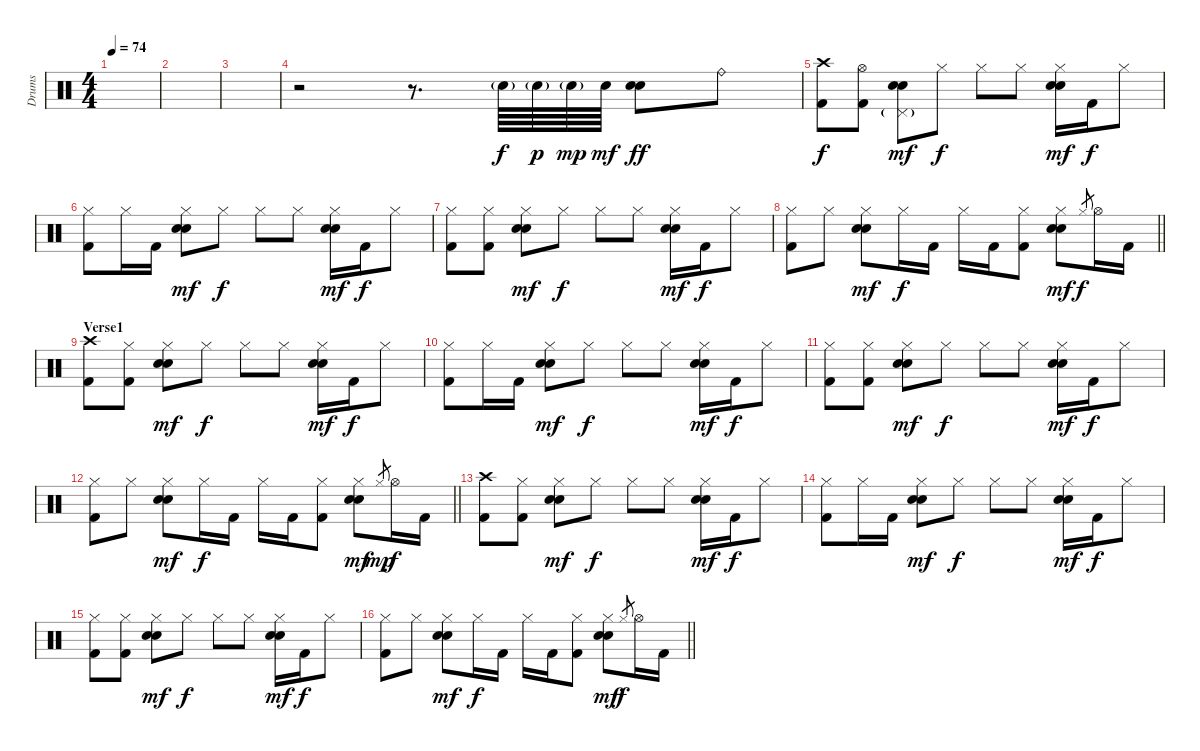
\track ("Drums" "Drums") {instrument percussion}
\staff {score}
\articulation defaults
\ts (4 4)
\tempo 74
\clef neutral
\ks c
|
|
|
r.2 r.8{d} "Snare (hit) 2"{g}.64 "Snare (hit) 2"{g}.64{dy p} "Snare (hit) 2"{g}.64{dy mp} "Snare (hit) 2".64{dy mf} ("Electric Snare (hit)" "Snare (hit) 2").8{dy ff} "Ride (bell)".8 |
("Crash high (hit)" "Kick (hit) 2").8{dy f} ("Hi-Hat (open)" "Kick (hit) 2").8 ("Pedal Hi-Hat (hit)"{g} "Electric Snare (hit)" "Snare (hit) 2").8{dy mf} "Hi-Hat (closed)".8{dy f} "Hi-Hat (closed)".8 "Hi-Hat (closed)".8 ("Hi-Hat (closed)" "Electric Snare (hit)" "Snare (hit) 2").16{dy mf} "Kick (hit) 2".16{dy f} "Hi-Hat (closed)".8 |
("Hi-Hat (closed)" "Kick (hit) 2").8 "Hi-Hat (closed)".16 "Kick (hit) 2".16 ("Hi-Hat (closed)" "Electric Snare (hit)" "Snare (hit) 2").8{dy mf} "Hi-Hat (closed)".8{dy f} "Hi-Hat (closed)".8 "Hi-Hat (closed)".8 ("Hi-Hat (closed)" "Electric Snare (hit)" "Snare (hit) 2").16{dy mf} "Kick (hit) 2".16{dy f} "Hi-Hat (closed)".8 |
("Hi-Hat (closed)" "Kick (hit) 2").8 ("Hi-Hat (closed)" "Kick (hit) 2").8 ("Hi-Hat (closed)" "Electric Snare (hit)" "Snare (hit) 2").8{dy mf} "Hi-Hat (closed)".8{dy f} "Hi-Hat (closed)".8 "Hi-Hat (closed)".8 ("Hi-Hat (closed)" "Electric Snare (hit)" "Snare (hit) 2").16{dy mf} "Kick (hit) 2".16{dy f} "Hi-Hat (closed)".8 |
\barLineRight lightlight
("Hi-Hat (closed)" "Kick (hit) 2").8 "Hi-Hat (closed)".8 ("Hi-Hat (closed)" "Electric Snare (hit)" "Snare (hit) 2").8{dy mf} "Hi-Hat (closed)".16{dy f} "Kick (hit) 2".16 "Hi-Hat (closed)".16 "Kick (hit) 2".16 ("Hi-Hat (closed)" "Kick (hit) 2").8 ("Hi-Hat (closed)" "Electric Snare (hit)" "Snare (hit) 2").8{dy mf} "Hi-Hat (closed)".8{gr dy f} "Hi-Hat (open)".16 "Kick (hit) 2".16 |
\section ("" "Verse1")
("Crash high (hit)" "Kick (hit) 2").8 ("Hi-Hat (closed)" "Kick (hit) 2").8 ("Hi-Hat (closed)" "Electric Snare (hit)" "Snare (hit) 2").8{dy mf} "Hi-Hat (closed)".8{dy f} "Hi-Hat (closed)".8 "Hi-Hat (closed)".8 ("Hi-Hat (closed)" "Electric Snare (hit)" "Snare (hit) 2").16{dy mf} "Kick (hit) 2".16{dy f} "Hi-Hat (closed)".8 |
("Hi-Hat (closed)" "Kick (hit) 2").8 "Hi-Hat (closed)".16 "Kick (hit) 2".16 ("Hi-Hat (closed)" "Electric Snare (hit)" "Snare (hit) 2").8{dy mf} "Hi-Hat (closed)".8{dy f} "Hi-Hat (closed)".8 "Hi-Hat (closed)".8 ("Hi-Hat (closed)" "Electric Snare (hit)" "Snare (hit) 2").16{dy mf} "Kick (hit) 2".16{dy f} "Hi-Hat (closed)".8 |
("Hi-Hat (closed)" "Kick (hit) 2").8 ("Hi-Hat (closed)" "Kick (hit) 2").8 ("Hi-Hat (closed)" "Electric Snare (hit)" "Snare (hit) 2").8{dy mf} "Hi-Hat (closed)".8{dy f} "Hi-Hat (closed)".8 "Hi-Hat (closed)".8 ("Hi-Hat (closed)" "Electric Snare (hit)" "Snare (hit) 2").16{dy mf} "Kick (hit) 2".16{dy f} "Hi-Hat (closed)".8 |
\barLineRight lightlight
("Hi-Hat (closed)" "Kick (hit) 2").8 "Hi-Hat (closed)".8 ("Hi-Hat (closed)" "Electric Snare (hit)" "Snare (hit) 2").8{dy mf} "Hi-Hat (closed)".16{dy f} "Kick (hit) 2".16 "Hi-Hat (closed)".16 "Kick (hit) 2".16 ("Hi-Hat (closed)" "Kick (hit) 2").8 ("Hi-Hat (closed)" "Electric Snare (hit)" "Snare (hit) 2").8{dy mf} "Hi-Hat (closed)".8{gr dy mp} "Hi-Hat (open)".16{dy f} "Kick (hit) 2".16 |
("Crash high (hit)" "Kick (hit) 2").8 ("Hi-Hat (closed)" "Kick (hit) 2").8 ("Hi-Hat (closed)" "Electric Snare (hit)" "Snare (hit) 2").8{dy mf} "Hi-Hat (closed)".8{dy f} "Hi-Hat (closed)".8 "Hi-Hat (closed)".8 ("Hi-Hat (closed)" "Electric Snare (hit)" "Snare (hit) 2").16{dy mf} "Kick (hit) 2".16{dy f} "Hi-Hat (closed)".8 |
("Hi-Hat (closed)" "Kick (hit) 2").8 "Hi-Hat (closed)".16 "Kick (hit) 2".16 ("Hi-Hat (closed)" "Electric Snare (hit)" "Snare (hit) 2").8{dy mf} "Hi-Hat (closed)".8{dy f} "Hi-Hat (closed)".8 "Hi-Hat (closed)".8 ("Hi-Hat (closed)" "Electric Snare (hit)" "Snare (hit) 2").16{dy mf} "Kick (hit) 2".16{dy f} "Hi-Hat (closed)".8 |
("Hi-Hat (closed)" "Kick (hit) 2").8 ("Hi-Hat (closed)" "Kick (hit) 2").8 ("Hi-Hat (closed)" "Electric Snare (hit)" "Snare (hit) 2").8{dy mf} "Hi-Hat (closed)".8{dy f} "Hi-Hat (closed)".8 "Hi-Hat (closed)".8 ("Hi-Hat (closed)" "Electric Snare (hit)" "Snare (hit) 2").16{dy mf} "Kick (hit) 2".16{dy f} "Hi-Hat (closed)".8 |
\barLineRight lightlight
("Hi-Hat (closed)" "Kick (hit) 2").8 "Hi-Hat (closed)".8 ("Hi-Hat (closed)" "Electric Snare (hit)" "Snare (hit) 2").8{dy mf} "Hi-Hat (closed)".16{dy f} "Kick (hit) 2".16 "Hi-Hat (closed)".16 "Kick (hit) 2".16 ("Hi-Hat (closed)" "Kick (hit) 2").8 ("Hi-Hat (closed)" "Electric Snare (hit)" "Snare (hit) 2").8{dy mf} "Hi-Hat (closed)".8{gr dy f} "Hi-Hat (open)".16 "Kick (hit) 2".16
